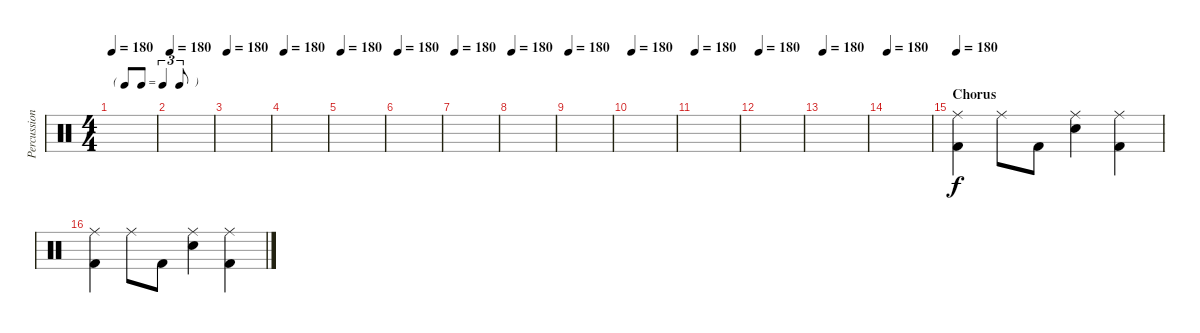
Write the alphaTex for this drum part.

\track ("Percussion" "Percussion") {instrument percussion}
\staff {score}
\articulation defaults
\ts (4 4)
\tf triplet8th
\tempo 180
\clef neutral
\ks c
|
\tempo 180
|
\tempo 180
|
\tempo 180
|
\tempo 180
|
\tempo 180
|
\tempo 180
|
\tempo 180
|
\tempo 180
|
\tempo 180
|
\tempo 180
|
\tempo 180
|
\tempo 180
|
\tempo 180
|
\section ("" "Chorus")
\tempo 180
("Ride (middle)" "Kick (hit) 2").4{dy f} "Ride (middle)".8 "Kick (hit) 2".8 ("Ride (middle)" "Electric Snare (hit)").4 ("Ride (middle)" "Kick (hit) 2").4 |
("Ride (middle)" "Kick (hit) 2").4 "Ride (middle)".8 "Kick (hit) 2".8 ("Ride (middle)" "Electric Snare (hit)").4 ("Ride (middle)" "Kick (hit) 2").4
